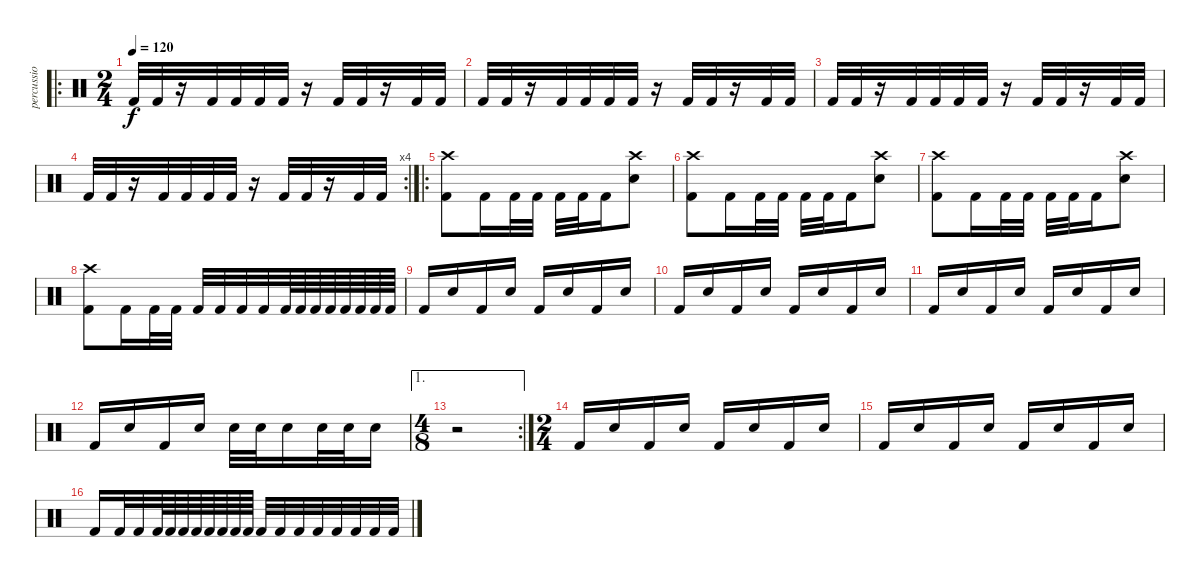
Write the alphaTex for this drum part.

\track (" percussion 1" " percussio") {instrument percussion}
\staff {score}
\articulation defaults
\ro
\ts (2 4)
\tempo 120
\clef neutral
\ks c "Kick (hit) 2".32{dy f} "Kick (hit) 2".32
r.16 "Kick (hit) 2".32 "Kick (hit) 2".32 "Kick (hit) 2".32 "Kick (hit) 2".32 r.16 "Kick (hit) 2".32 "Kick (hit) 2".32 r.16 "Kick (hit) 2".32 "Kick (hit) 2".32 |
"Kick (hit) 2".32 "Kick (hit) 2".32 r.16 "Kick (hit) 2".32 "Kick (hit) 2".32 "Kick (hit) 2".32 "Kick (hit) 2".32 r.16 "Kick (hit) 2".32 "Kick (hit) 2".32 r.16 "Kick (hit) 2".32 "Kick (hit) 2".32 |
"Kick (hit) 2".32 "Kick (hit) 2".32 r.16 "Kick (hit) 2".32 "Kick (hit) 2".32 "Kick (hit) 2".32 "Kick (hit) 2".32 r.16 "Kick (hit) 2".32 "Kick (hit) 2".32 r.16 "Kick (hit) 2".32 "Kick (hit) 2".32 |
\rc 4 "Kick (hit) 2".32 "Kick (hit) 2".32
r.16 "Kick (hit) 2".32 "Kick (hit) 2".32 "Kick (hit) 2".32 "Kick (hit) 2".32 r.16 "Kick (hit) 2".32 "Kick (hit) 2".32 r.16 "Kick (hit) 2".32 "Kick (hit) 2".32 |
\ro
("Crash high (hit)" "Kick (hit) 2").8 "Kick (hit) 2".16 "Kick (hit) 2".32 "Kick (hit) 2".32 "Kick (hit) 2".32 "Kick (hit) 2".32 "Kick (hit) 2".16 ("Crash high (hit)" "Snare (hit) 2").8 |
("Crash high (hit)" "Kick (hit) 2").8 "Kick (hit) 2".16 "Kick (hit) 2".32 "Kick (hit) 2".32 "Kick (hit) 2".32 "Kick (hit) 2".32 "Kick (hit) 2".16 ("Crash high (hit)" "Snare (hit) 2").8 |
("Crash high (hit)" "Kick (hit) 2").8 "Kick (hit) 2".16 "Kick (hit) 2".32 "Kick (hit) 2".32 "Kick (hit) 2".32 "Kick (hit) 2".32 "Kick (hit) 2".16 ("Crash high (hit)" "Snare (hit) 2").8 |
("Crash high (hit)" "Kick (hit) 2").8 "Kick (hit) 2".16 "Kick (hit) 2".32 "Kick (hit) 2".32 "Kick (hit) 2".32 "Kick (hit) 2".32 "Kick (hit) 2".32 "Kick (hit) 2".32 "Kick (hit) 2".64 "Kick (hit) 2".64 "Kick (hit) 2".64 "Kick (hit) 2".64 "Kick (hit) 2".64 "Kick (hit) 2".64 "Kick (hit) 2".64 "Kick (hit) 2".64 |
"Kick (hit) 2".16 "Snare (hit) 2".16 "Kick (hit) 2".16 "Snare (hit) 2".16 "Kick (hit) 2".16 "Snare (hit) 2".16 "Kick (hit) 2".16 "Snare (hit) 2".16 |
"Kick (hit) 2".16 "Snare (hit) 2".16 "Kick (hit) 2".16 "Snare (hit) 2".16 "Kick (hit) 2".16 "Snare (hit) 2".16 "Kick (hit) 2".16 "Snare (hit) 2".16 |
"Kick (hit) 2".16 "Snare (hit) 2".16 "Kick (hit) 2".16 "Snare (hit) 2".16 "Kick (hit) 2".16 "Snare (hit) 2".16 "Kick (hit) 2".16 "Snare (hit) 2".16 |
"Kick (hit) 2".16 "Snare (hit) 2".16 "Kick (hit) 2".16 "Snare (hit) 2".16 "Snare (hit) 2".32 "Snare (hit) 2".32 "Snare (hit) 2".16 "Snare (hit) 2".32 "Snare (hit) 2".32 "Snare (hit) 2".16 |
\ae 1
\rc 2
\ts (4 8)
r.2 |
\ts (2 4)
"Kick (hit) 2".16 "Snare (hit) 2".16 "Kick (hit) 2".16 "Snare (hit) 2".16 "Kick (hit) 2".16 "Snare (hit) 2".16 "Kick (hit) 2".16 "Snare (hit) 2".16 |
"Kick (hit) 2".16 "Snare (hit) 2".16 "Kick (hit) 2".16 "Snare (hit) 2".16 "Kick (hit) 2".16 "Snare (hit) 2".16 "Kick (hit) 2".16 "Snare (hit) 2".16 |
"Kick (hit) 2".16 "Kick (hit) 2".32 "Kick (hit) 2".32 "Kick (hit) 2".64 "Kick (hit) 2".64 "Kick (hit) 2".64 "Kick (hit) 2".64 "Kick (hit) 2".64 "Kick (hit) 2".64 "Kick (hit) 2".64 "Kick (hit) 2".64 "Kick (hit) 2".32 "Kick (hit) 2".32 "Kick (hit) 2".32 "Kick (hit) 2".32 "Kick (hit) 2".32 "Kick (hit) 2".32 "Kick (hit) 2".32 "Kick (hit) 2".32
